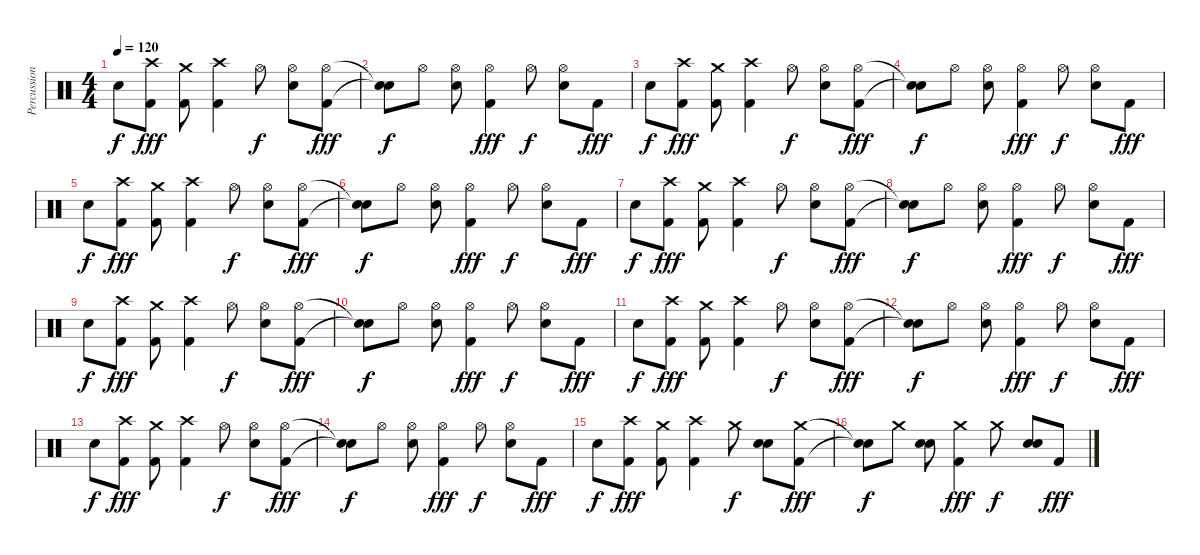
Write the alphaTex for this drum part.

\track ("Percussion" "Percussion") {instrument percussion}
\staff {score}
\articulation defaults
\ts (4 4)
\tempo 120
\clef neutral
\ks c "Snare (hit) 2".8{dy f}
("Crash high (hit)" "Kick (hit) 2").8{dy fff} ("Crash medium (hit)" "Kick (hit) 2").8 ("Crash high (hit)" "Kick (hit) 2").4 "Hi-Hat (open)".8{dy f} ("Hi-Hat (open)" "Snare (hit) 2").8 ("Hi-Hat (open)" "Kick (hit) 2").8{dy fff} |
("Snare (hit)"{t} "Snare (hit)"{t}).8{dy f} "Hi-Hat (open)".8 ("Hi-Hat (open)" "Snare (hit) 2").8 ("Hi-Hat (open)" "Kick (hit) 2").4{dy fff} "Hi-Hat (open)".8{dy f} ("Hi-Hat (open)" "Snare (hit) 2").8 "Kick (hit) 2".8{dy fff} |
"Snare (hit) 2".8{dy f} ("Crash high (hit)" "Kick (hit) 2").8{dy fff} ("Crash medium (hit)" "Kick (hit) 2").8 ("Crash high (hit)" "Kick (hit) 2").4 "Hi-Hat (open)".8{dy f} ("Hi-Hat (open)" "Snare (hit) 2").8 ("Hi-Hat (open)" "Kick (hit) 2").8{dy fff} |
("Snare (hit)"{t} "Snare (hit)"{t}).8{dy f} "Hi-Hat (open)".8 ("Hi-Hat (open)" "Snare (hit) 2").8 ("Hi-Hat (open)" "Kick (hit) 2").4{dy fff} "Hi-Hat (open)".8{dy f} ("Hi-Hat (open)" "Snare (hit) 2").8 "Kick (hit) 2".8{dy fff} |
"Snare (hit) 2".8{dy f} ("Crash high (hit)" "Kick (hit) 2").8{dy fff} ("Crash medium (hit)" "Kick (hit) 2").8 ("Crash high (hit)" "Kick (hit) 2").4 "Hi-Hat (open)".8{dy f} ("Hi-Hat (open)" "Snare (hit) 2").8 ("Hi-Hat (open)" "Kick (hit) 2").8{dy fff} |
("Snare (hit)"{t} "Snare (hit)"{t}).8{dy f} "Hi-Hat (open)".8 ("Hi-Hat (open)" "Snare (hit) 2").8 ("Hi-Hat (open)" "Kick (hit) 2").4{dy fff} "Hi-Hat (open)".8{dy f} ("Hi-Hat (open)" "Snare (hit) 2").8 "Kick (hit) 2".8{dy fff} |
"Snare (hit) 2".8{dy f} ("Crash high (hit)" "Kick (hit) 2").8{dy fff} ("Crash medium (hit)" "Kick (hit) 2").8 ("Crash high (hit)" "Kick (hit) 2").4 "Hi-Hat (open)".8{dy f} ("Hi-Hat (open)" "Snare (hit) 2").8 ("Hi-Hat (open)" "Kick (hit) 2").8{dy fff} |
("Snare (hit)"{t} "Snare (hit)"{t}).8{dy f} "Hi-Hat (open)".8 ("Hi-Hat (open)" "Snare (hit) 2").8 ("Hi-Hat (open)" "Kick (hit) 2").4{dy fff} "Hi-Hat (open)".8{dy f} ("Hi-Hat (open)" "Snare (hit) 2").8 "Kick (hit) 2".8{dy fff} |
"Snare (hit) 2".8{dy f} ("Crash high (hit)" "Kick (hit) 2").8{dy fff} ("Crash medium (hit)" "Kick (hit) 2").8 ("Crash high (hit)" "Kick (hit) 2").4 "Hi-Hat (open)".8{dy f} ("Hi-Hat (open)" "Snare (hit) 2").8 ("Hi-Hat (open)" "Kick (hit) 2").8{dy fff} |
("Snare (hit)"{t} "Snare (hit)"{t}).8{dy f} "Hi-Hat (open)".8 ("Hi-Hat (open)" "Snare (hit) 2").8 ("Hi-Hat (open)" "Kick (hit) 2").4{dy fff} "Hi-Hat (open)".8{dy f} ("Hi-Hat (open)" "Snare (hit) 2").8 "Kick (hit) 2".8{dy fff} |
"Snare (hit) 2".8{dy f} ("Crash high (hit)" "Kick (hit) 2").8{dy fff} ("Crash medium (hit)" "Kick (hit) 2").8 ("Crash high (hit)" "Kick (hit) 2").4 "Hi-Hat (open)".8{dy f} ("Hi-Hat (open)" "Snare (hit) 2").8 ("Hi-Hat (open)" "Kick (hit) 2").8{dy fff} |
("Snare (hit)"{t} "Snare (hit)"{t}).8{dy f} "Hi-Hat (open)".8 ("Hi-Hat (open)" "Snare (hit) 2").8 ("Hi-Hat (open)" "Kick (hit) 2").4{dy fff} "Hi-Hat (open)".8{dy f} ("Hi-Hat (open)" "Snare (hit) 2").8 "Kick (hit) 2".8{dy fff} |
"Snare (hit) 2".8{dy f} ("Crash high (hit)" "Kick (hit) 2").8{dy fff} ("Crash medium (hit)" "Kick (hit) 2").8 ("Crash high (hit)" "Kick (hit) 2").4 "Hi-Hat (open)".8{dy f} ("Hi-Hat (open)" "Snare (hit) 2").8 ("Hi-Hat (open)" "Kick (hit) 2").8{dy fff} |
("Snare (hit)"{t} "Snare (hit)"{t}).8{dy f} "Hi-Hat (open)".8 ("Hi-Hat (open)" "Snare (hit) 2").8 ("Hi-Hat (open)" "Kick (hit) 2").4{dy fff} "Hi-Hat (open)".8{dy f} ("Hi-Hat (open)" "Snare (hit) 2").8 "Kick (hit) 2".8{dy fff} |
"Snare (hit) 2".8{dy f} ("Crash high (hit)" "Kick (hit) 2").8{dy fff} ("Crash medium (hit)" "Kick (hit) 2").8 ("Crash high (hit)" "Kick (hit) 2").4 "Crash medium (hit)".8{dy f} ("Snare (hit)" "Snare (hit) 2").8 ("Crash medium (hit)" "Kick (hit) 2").8{dy fff} |
("Snare (hit)"{t} "Snare (hit)"{t}).8{dy f} "Crash medium (hit)".8 ("Snare (hit)" "Snare (hit) 2").8 ("Crash medium (hit)" "Kick (hit) 2").4{dy fff} "Crash medium (hit)".8{dy f} ("Snare (hit)" "Snare (hit) 2").8 "Kick (hit) 2".8{dy fff}
